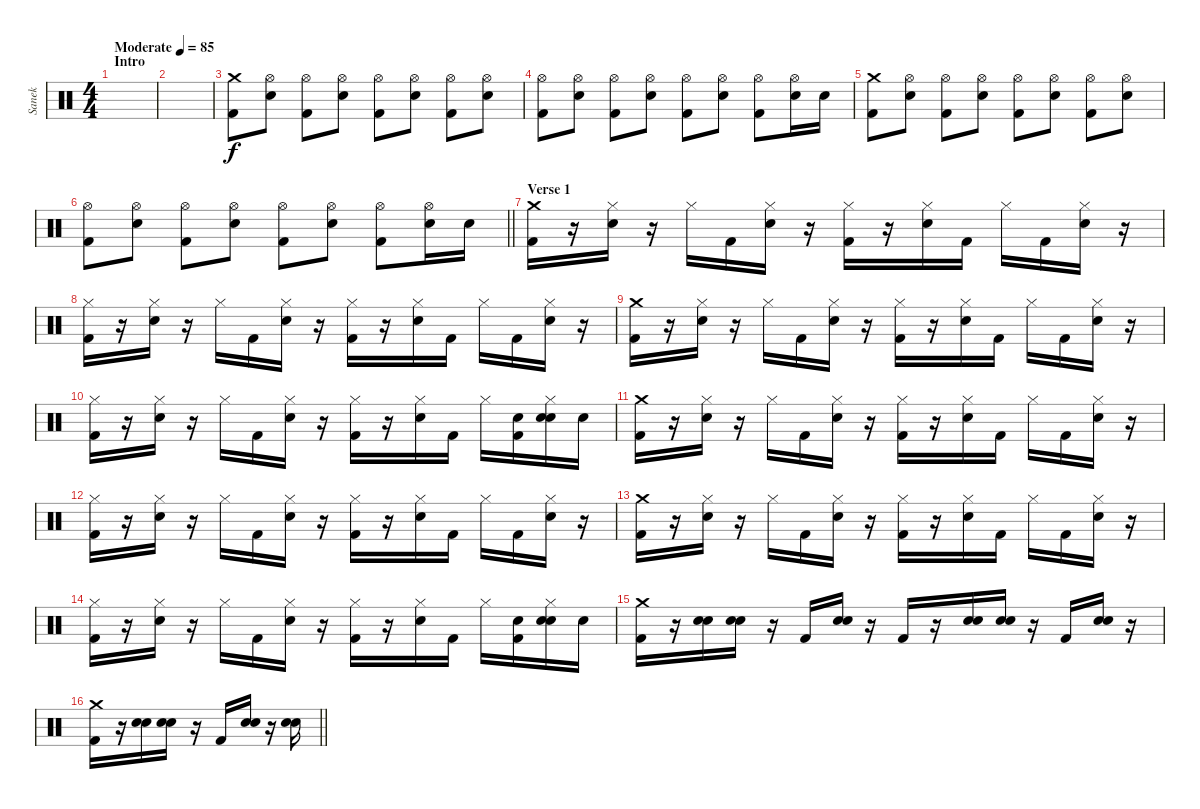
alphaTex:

\track ("Sanek" "Sanek") {instrument percussion}
\staff {score}
\articulation defaults
\ts (4 4)
\section ("" "Intro")
\tempo (85 "Moderate")
\clef neutral
\ks c
|
|
("Kick (hit) 2" "Crash medium (hit)").8 ("Electric Snare (hit)" "Hi-Hat (open)").8 ("Kick (hit) 2" "Hi-Hat (open)").8 ("Electric Snare (hit)" "Hi-Hat (open)").8 ("Kick (hit) 2" "Hi-Hat (open)").8 ("Electric Snare (hit)" "Hi-Hat (open)").8 ("Kick (hit) 2" "Hi-Hat (open)").8 ("Electric Snare (hit)" "Hi-Hat (open)").8 |
("Kick (hit) 2" "Hi-Hat (open)").8 ("Electric Snare (hit)" "Hi-Hat (open)").8 ("Kick (hit) 2" "Hi-Hat (open)").8 ("Electric Snare (hit)" "Hi-Hat (open)").8 ("Kick (hit) 2" "Hi-Hat (open)").8 ("Electric Snare (hit)" "Hi-Hat (open)").8 ("Kick (hit) 2" "Hi-Hat (open)").8 ("Electric Snare (hit)" "Hi-Hat (open)").16 "Electric Snare (hit)".16 |
("Kick (hit) 2" "Crash medium (hit)").8 ("Electric Snare (hit)" "Hi-Hat (open)").8 ("Kick (hit) 2" "Hi-Hat (open)").8 ("Electric Snare (hit)" "Hi-Hat (open)").8 ("Kick (hit) 2" "Hi-Hat (open)").8 ("Electric Snare (hit)" "Hi-Hat (open)").8 ("Kick (hit) 2" "Hi-Hat (open)").8 ("Electric Snare (hit)" "Hi-Hat (open)").8 |
\barLineRight lightlight
("Kick (hit) 2" "Hi-Hat (open)").8 ("Electric Snare (hit)" "Hi-Hat (open)").8 ("Kick (hit) 2" "Hi-Hat (open)").8 ("Electric Snare (hit)" "Hi-Hat (open)").8 ("Kick (hit) 2" "Hi-Hat (open)").8 ("Electric Snare (hit)" "Hi-Hat (open)").8 ("Kick (hit) 2" "Hi-Hat (open)").8 ("Electric Snare (hit)" "Hi-Hat (open)").16 "Electric Snare (hit)".16 |
\section ("" "Verse 1")
("Kick (hit) 2" "Crash medium (hit)").16 r.16 ("Electric Snare (hit)" "Hi-Hat (closed)").16 r.16 "Hi-Hat (closed)".16 "Kick (hit) 2".16 ("Electric Snare (hit)" "Hi-Hat (closed)").16 r.16 ("Kick (hit) 2" "Hi-Hat (closed)").16 r.16 ("Electric Snare (hit)" "Hi-Hat (closed)").16 "Kick (hit) 2".16 "Hi-Hat (closed)".16 "Kick (hit) 2".16 ("Electric Snare (hit)" "Hi-Hat (closed)").16 r.16 |
("Kick (hit) 2" "Hi-Hat (closed)").16 r.16 ("Electric Snare (hit)" "Hi-Hat (closed)").16 r.16 "Hi-Hat (closed)".16 "Kick (hit) 2".16 ("Electric Snare (hit)" "Hi-Hat (closed)").16 r.16 ("Kick (hit) 2" "Hi-Hat (closed)").16 r.16 ("Electric Snare (hit)" "Hi-Hat (closed)").16 "Kick (hit) 2".16 "Hi-Hat (closed)".16 "Kick (hit) 2".16 ("Electric Snare (hit)" "Hi-Hat (closed)").16 r.16 |
("Kick (hit) 2" "Crash medium (hit)").16 r.16 ("Electric Snare (hit)" "Hi-Hat (closed)").16 r.16 "Hi-Hat (closed)".16 "Kick (hit) 2".16 ("Electric Snare (hit)" "Hi-Hat (closed)").16 r.16 ("Kick (hit) 2" "Hi-Hat (closed)").16 r.16 ("Electric Snare (hit)" "Hi-Hat (closed)").16 "Kick (hit) 2".16 "Hi-Hat (closed)".16 "Kick (hit) 2".16 ("Electric Snare (hit)" "Hi-Hat (closed)").16 r.16 |
("Kick (hit) 2" "Hi-Hat (closed)").16 r.16 ("Electric Snare (hit)" "Hi-Hat (closed)").16 r.16 "Hi-Hat (closed)".16 "Kick (hit) 2".16 ("Electric Snare (hit)" "Hi-Hat (closed)").16 r.16 ("Kick (hit) 2" "Hi-Hat (closed)").16 r.16 ("Electric Snare (hit)" "Hi-Hat (closed)").16 "Kick (hit) 2".16 "Hi-Hat (closed)".16 ("Kick (hit) 2" "Hand Clap (hit)").16 ("Electric Snare (hit)" "Hi-Hat (closed)" "Hand Clap (hit)").16 "Electric Snare (hit)".16 |
("Kick (hit) 2" "Crash medium (hit)").16 r.16 ("Electric Snare (hit)" "Hi-Hat (closed)").16 r.16 "Hi-Hat (closed)".16 "Kick (hit) 2".16 ("Electric Snare (hit)" "Hi-Hat (closed)").16 r.16 ("Kick (hit) 2" "Hi-Hat (closed)").16 r.16 ("Electric Snare (hit)" "Hi-Hat (closed)").16 "Kick (hit) 2".16 "Hi-Hat (closed)".16 "Kick (hit) 2".16 ("Electric Snare (hit)" "Hi-Hat (closed)").16 r.16 |
("Kick (hit) 2" "Hi-Hat (closed)").16 r.16 ("Electric Snare (hit)" "Hi-Hat (closed)").16 r.16 "Hi-Hat (closed)".16 "Kick (hit) 2".16 ("Electric Snare (hit)" "Hi-Hat (closed)").16 r.16 ("Kick (hit) 2" "Hi-Hat (closed)").16 r.16 ("Electric Snare (hit)" "Hi-Hat (closed)").16 "Kick (hit) 2".16 "Hi-Hat (closed)".16 "Kick (hit) 2".16 ("Electric Snare (hit)" "Hi-Hat (closed)").16 r.16 |
("Kick (hit) 2" "Crash medium (hit)").16 r.16 ("Electric Snare (hit)" "Hi-Hat (closed)").16 r.16 "Hi-Hat (closed)".16 "Kick (hit) 2".16 ("Electric Snare (hit)" "Hi-Hat (closed)").16 r.16 ("Kick (hit) 2" "Hi-Hat (closed)").16 r.16 ("Electric Snare (hit)" "Hi-Hat (closed)").16 "Kick (hit) 2".16 "Hi-Hat (closed)".16 "Kick (hit) 2".16 ("Electric Snare (hit)" "Hi-Hat (closed)").16 r.16 |
("Kick (hit) 2" "Hi-Hat (closed)").16 r.16 ("Electric Snare (hit)" "Hi-Hat (closed)").16 r.16 "Hi-Hat (closed)".16 "Kick (hit) 2".16 ("Electric Snare (hit)" "Hi-Hat (closed)").16 r.16 ("Kick (hit) 2" "Hi-Hat (closed)").16 r.16 ("Electric Snare (hit)" "Hi-Hat (closed)").16 "Kick (hit) 2".16 "Hi-Hat (closed)".16 ("Kick (hit) 2" "Hand Clap (hit)").16 ("Electric Snare (hit)" "Hi-Hat (closed)" "Hand Clap (hit)").16 "Electric Snare (hit)".16 |
("Kick (hit) 2" "Crash medium (hit)").16 r.16 ("Electric Snare (hit)" "Hand Clap (hit)").16 ("Electric Snare (hit)" "Hand Clap (hit)").16 r.16 "Kick (hit) 2".16 ("Electric Snare (hit)" "Hand Clap (hit)").16 r.16 "Kick (hit) 2".16 r.16 ("Electric Snare (hit)" "Hand Clap (hit)").16 ("Electric Snare (hit)" "Hand Clap (hit)").16 r.16 "Kick (hit) 2".16 ("Electric Snare (hit)" "Hand Clap (hit)").16 r.16 |
\barLineRight lightlight
("Kick (hit) 2" "Crash medium (hit)").16 r.16 ("Electric Snare (hit)" "Hand Clap (hit)").16 ("Electric Snare (hit)" "Hand Clap (hit)").16 r.16 "Kick (hit) 2".16 ("Electric Snare (hit)" "Hand Clap (hit)").16 r.16 ("Electric Snare (hit)" "Hand Clap (hit)").16
